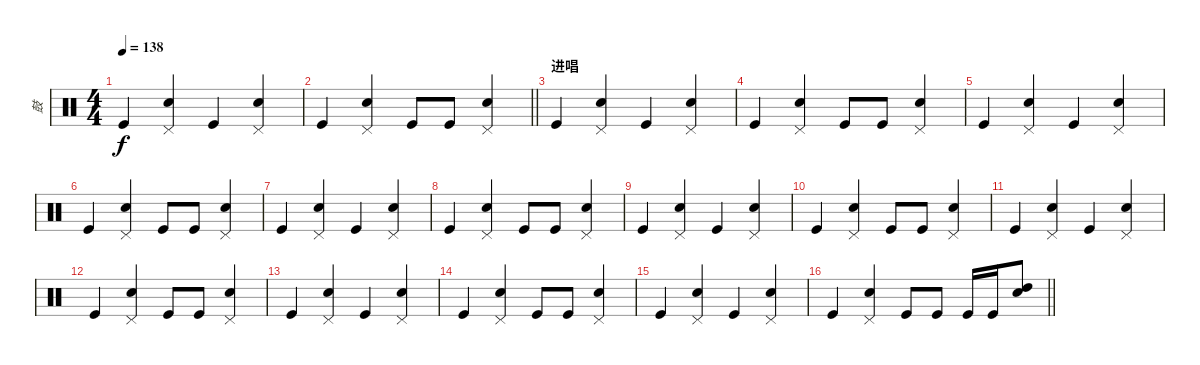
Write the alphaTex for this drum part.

\track ("鼓" "鼓") {instrument percussion}
\staff {score}
\articulation defaults
\ts (4 4)
\tempo 138
\clef neutral
\ks c "Kick (hit)".4{dy f}
("Snare (hit) 2" "Pedal Hi-Hat (hit)").4 "Kick (hit)".4 ("Snare (hit) 2" "Pedal Hi-Hat (hit)").4 |
\barLineRight lightlight "Kick (hit)".4
("Snare (hit) 2" "Pedal Hi-Hat (hit)").4 "Kick (hit)".8 "Kick (hit)".8 ("Snare (hit) 2" "Pedal Hi-Hat (hit)").4 |
\section ("" "进唱")
"Kick (hit)".4 ("Snare (hit) 2" "Pedal Hi-Hat (hit)").4 "Kick (hit)".4 ("Snare (hit) 2" "Pedal Hi-Hat (hit)").4 |
"Kick (hit)".4 ("Snare (hit) 2" "Pedal Hi-Hat (hit)").4 "Kick (hit)".8 "Kick (hit)".8 ("Snare (hit) 2" "Pedal Hi-Hat (hit)").4 |
"Kick (hit)".4 ("Snare (hit) 2" "Pedal Hi-Hat (hit)").4 "Kick (hit)".4 ("Snare (hit) 2" "Pedal Hi-Hat (hit)").4 |
"Kick (hit)".4 ("Snare (hit) 2" "Pedal Hi-Hat (hit)").4 "Kick (hit)".8 "Kick (hit)".8 ("Snare (hit) 2" "Pedal Hi-Hat (hit)").4 |
"Kick (hit)".4 ("Snare (hit) 2" "Pedal Hi-Hat (hit)").4 "Kick (hit)".4 ("Snare (hit) 2" "Pedal Hi-Hat (hit)").4 |
"Kick (hit)".4 ("Snare (hit) 2" "Pedal Hi-Hat (hit)").4 "Kick (hit)".8 "Kick (hit)".8 ("Snare (hit) 2" "Pedal Hi-Hat (hit)").4 |
"Kick (hit)".4 ("Snare (hit) 2" "Pedal Hi-Hat (hit)").4 "Kick (hit)".4 ("Snare (hit) 2" "Pedal Hi-Hat (hit)").4 |
"Kick (hit)".4 ("Snare (hit) 2" "Pedal Hi-Hat (hit)").4 "Kick (hit)".8 "Kick (hit)".8 ("Snare (hit) 2" "Pedal Hi-Hat (hit)").4 |
"Kick (hit)".4 ("Snare (hit) 2" "Pedal Hi-Hat (hit)").4 "Kick (hit)".4 ("Snare (hit) 2" "Pedal Hi-Hat (hit)").4 |
"Kick (hit)".4 ("Snare (hit) 2" "Pedal Hi-Hat (hit)").4 "Kick (hit)".8 "Kick (hit)".8 ("Snare (hit) 2" "Pedal Hi-Hat (hit)").4 |
"Kick (hit)".4 ("Snare (hit) 2" "Pedal Hi-Hat (hit)").4 "Kick (hit)".4 ("Snare (hit) 2" "Pedal Hi-Hat (hit)").4 |
"Kick (hit)".4 ("Snare (hit) 2" "Pedal Hi-Hat (hit)").4 "Kick (hit)".8 "Kick (hit)".8 ("Snare (hit) 2" "Pedal Hi-Hat (hit)").4 |
"Kick (hit)".4 ("Snare (hit) 2" "Pedal Hi-Hat (hit)").4 "Kick (hit)".4 ("Snare (hit) 2" "Pedal Hi-Hat (hit)").4 |
\barLineRight lightlight "Kick (hit)".4
("Snare (hit) 2" "Pedal Hi-Hat (hit)").4 "Kick (hit)".8 "Kick (hit)".8 "Kick (hit)".16 "Kick (hit)".16 ("Snare (hit) 2" "High Tom (hit)").8
